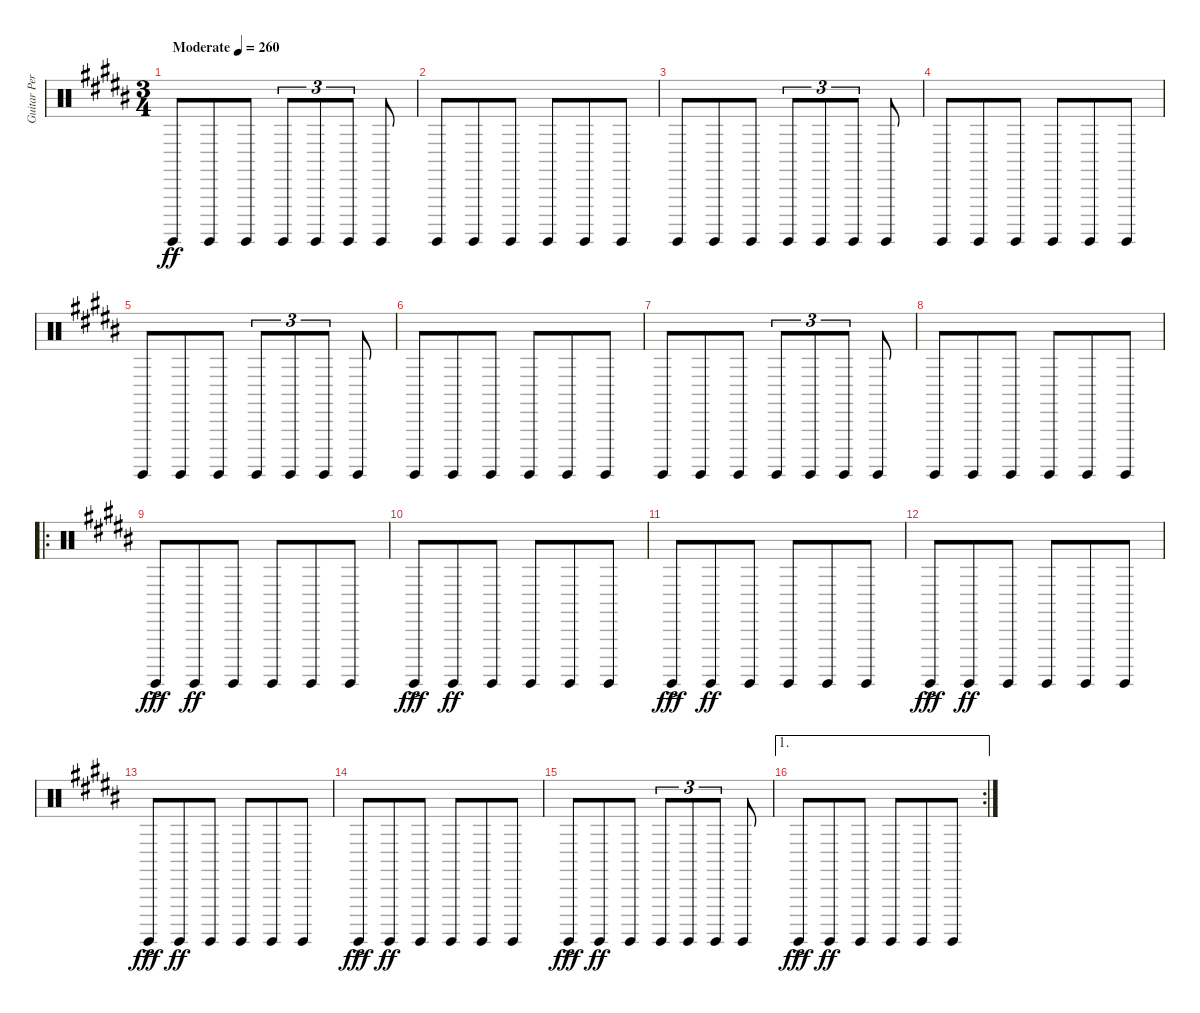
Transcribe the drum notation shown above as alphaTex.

\track ("Guitar Percussion Noises" "Guitar Per") {instrument percussion}
\staff {score}
\articulation defaults
\ts (3 4)
\tempo (260 "Moderate")
\clef neutral
\ks b "Surdo (hit)".8{dy ff} "Surdo (hit)".8{beam merge} "Surdo (hit)".8{beam split} "Surdo (hit)".8{tu (3 2)} "Surdo (hit)".8{tu (3 2) beam merge} "Surdo (hit)".8{tu (3 2) beam split} "Surdo (hit)".8
|
"Surdo (hit)".8 "Surdo (hit)".8{beam merge} "Surdo (hit)".8{beam split} "Surdo (hit)".8{beam merge} "Surdo (hit)".8{beam merge} "Surdo (hit)".8 |
"Surdo (hit)".8 "Surdo (hit)".8{beam merge} "Surdo (hit)".8{beam split} "Surdo (hit)".8{tu (3 2)} "Surdo (hit)".8{tu (3 2) beam merge} "Surdo (hit)".8{tu (3 2) beam split} "Surdo (hit)".8 |
"Surdo (hit)".8 "Surdo (hit)".8{beam merge} "Surdo (hit)".8{beam split} "Surdo (hit)".8{beam merge} "Surdo (hit)".8{beam merge} "Surdo (hit)".8 |
"Surdo (hit)".8 "Surdo (hit)".8{beam merge} "Surdo (hit)".8{beam split} "Surdo (hit)".8{tu (3 2)} "Surdo (hit)".8{tu (3 2) beam merge} "Surdo (hit)".8{tu (3 2) beam split} "Surdo (hit)".8 |
"Surdo (hit)".8 "Surdo (hit)".8{beam merge} "Surdo (hit)".8{beam split} "Surdo (hit)".8{beam merge} "Surdo (hit)".8{beam merge} "Surdo (hit)".8 |
"Surdo (hit)".8 "Surdo (hit)".8{beam merge} "Surdo (hit)".8{beam split} "Surdo (hit)".8{tu (3 2)} "Surdo (hit)".8{tu (3 2) beam merge} "Surdo (hit)".8{tu (3 2) beam split} "Surdo (hit)".8 |
"Surdo (hit)".8 "Surdo (hit)".8{beam merge} "Surdo (hit)".8{beam split} "Surdo (hit)".8{beam merge} "Surdo (hit)".8{beam merge} "Surdo (hit)".8 |
\ro "Surdo (hit)"{ac}.8{dy fff} "Surdo (hit)".8{dy ff beam merge} "Surdo (hit)".8{beam split} "Surdo (hit)".8{beam merge} "Surdo (hit)".8{beam merge} "Surdo (hit)".8
|
"Surdo (hit)"{ac}.8{dy fff} "Surdo (hit)".8{dy ff beam merge} "Surdo (hit)".8{beam split} "Surdo (hit)".8{beam merge} "Surdo (hit)".8{beam merge} "Surdo (hit)".8 |
"Surdo (hit)"{ac}.8{dy fff} "Surdo (hit)".8{dy ff beam merge} "Surdo (hit)".8{beam split} "Surdo (hit)".8{beam merge} "Surdo (hit)".8{beam merge} "Surdo (hit)".8 |
"Surdo (hit)"{ac}.8{dy fff} "Surdo (hit)".8{dy ff beam merge} "Surdo (hit)".8{beam split} "Surdo (hit)".8{beam merge} "Surdo (hit)".8{beam merge} "Surdo (hit)".8 |
"Surdo (hit)"{ac}.8{dy fff} "Surdo (hit)".8{dy ff beam merge} "Surdo (hit)".8{beam split} "Surdo (hit)".8{beam merge} "Surdo (hit)".8{beam merge} "Surdo (hit)".8 |
"Surdo (hit)"{ac}.8{dy fff} "Surdo (hit)".8{dy ff beam merge} "Surdo (hit)".8{beam split} "Surdo (hit)".8{beam merge} "Surdo (hit)".8{beam merge} "Surdo (hit)".8 |
"Surdo (hit)"{ac}.8{dy fff} "Surdo (hit)".8{dy ff beam merge} "Surdo (hit)".8{beam split} "Surdo (hit)".8{tu (3 2)} "Surdo (hit)".8{tu (3 2) beam merge} "Surdo (hit)".8{tu (3 2) beam split} "Surdo (hit)".8 |
\ae 1
\rc 2 "Surdo (hit)"{ac}.8{dy fff} "Surdo (hit)".8{dy ff beam merge} "Surdo (hit)".8{beam split} "Surdo (hit)".8{beam merge} "Surdo (hit)".8{beam merge} "Surdo (hit)".8
